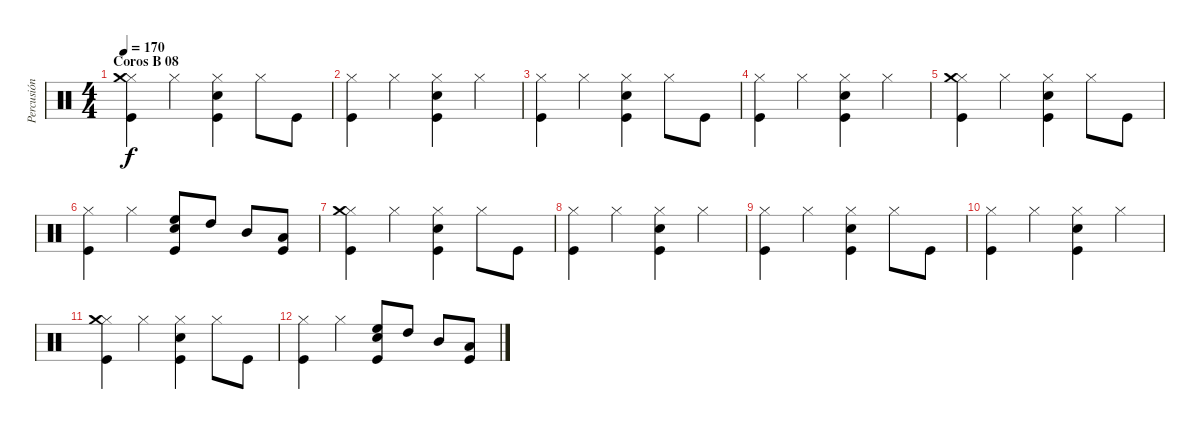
\track ("Percusión" "Percusión") {instrument percussion}
\staff {score}
\articulation defaults
\ts (4 4)
\section ("" "Coros B 08")
\tempo 170
\clef neutral
\ks c
("Hi-Hat (closed)" "Crash medium (hit)" "Kick (hit)").4{dy f volume 8} "Hi-Hat (closed)".4 ("Hi-Hat (closed)" "Snare (hit) 2" "Kick (hit)").4 "Hi-Hat (closed)".8 "Kick (hit)".8 |
("Hi-Hat (closed)" "Kick (hit)").4 "Hi-Hat (closed)".4 ("Hi-Hat (closed)" "Snare (hit) 2" "Kick (hit)").4 "Hi-Hat (closed)".4 |
("Hi-Hat (closed)" "Kick (hit)").4 "Hi-Hat (closed)".4 ("Hi-Hat (closed)" "Snare (hit) 2" "Kick (hit)").4 "Hi-Hat (closed)".8 "Kick (hit)".8 |
("Hi-Hat (closed)" "Kick (hit)").4 "Hi-Hat (closed)".4 ("Hi-Hat (closed)" "Snare (hit) 2" "Kick (hit)").4 "Hi-Hat (closed)".4 |
("Hi-Hat (closed)" "Crash medium (hit)" "Kick (hit)").4{volume 4} "Hi-Hat (closed)".4 ("Hi-Hat (closed)" "Snare (hit) 2" "Kick (hit)").4 "Hi-Hat (closed)".8 "Kick (hit)".8 |
("Hi-Hat (closed)" "Kick (hit)").4 "Hi-Hat (closed)".4 ("High Floor Tom (hit)" "Snare (hit) 2" "Kick (hit)").8 "High Tom (hit)".8 "Mid Tom (hit)".8 ("Low Tom (hit)" "Kick (hit)").8 |
("Hi-Hat (closed)" "Crash medium (hit)" "Kick (hit)").4 "Hi-Hat (closed)".4 ("Hi-Hat (closed)" "Snare (hit) 2" "Kick (hit)").4 "Hi-Hat (closed)".8 "Kick (hit)".8 |
("Hi-Hat (closed)" "Kick (hit)").4 "Hi-Hat (closed)".4 ("Hi-Hat (closed)" "Snare (hit) 2" "Kick (hit)").4 "Hi-Hat (closed)".4 |
("Hi-Hat (closed)" "Kick (hit)").4{volume 0} "Hi-Hat (closed)".4 ("Hi-Hat (closed)" "Snare (hit) 2" "Kick (hit)").4 "Hi-Hat (closed)".8 "Kick (hit)".8 |
("Hi-Hat (closed)" "Kick (hit)").4 "Hi-Hat (closed)".4 ("Hi-Hat (closed)" "Snare (hit) 2" "Kick (hit)").4 "Hi-Hat (closed)".4 |
("Hi-Hat (closed)" "Crash medium (hit)" "Kick (hit)").4 "Hi-Hat (closed)".4 ("Hi-Hat (closed)" "Snare (hit) 2" "Kick (hit)").4 "Hi-Hat (closed)".8 "Kick (hit)".8 |
("Hi-Hat (closed)" "Kick (hit)").4 "Hi-Hat (closed)".4 ("High Floor Tom (hit)" "Snare (hit) 2" "Kick (hit)").8 "High Tom (hit)".8 "Mid Tom (hit)".8 ("Low Tom (hit)" "Kick (hit)").8
